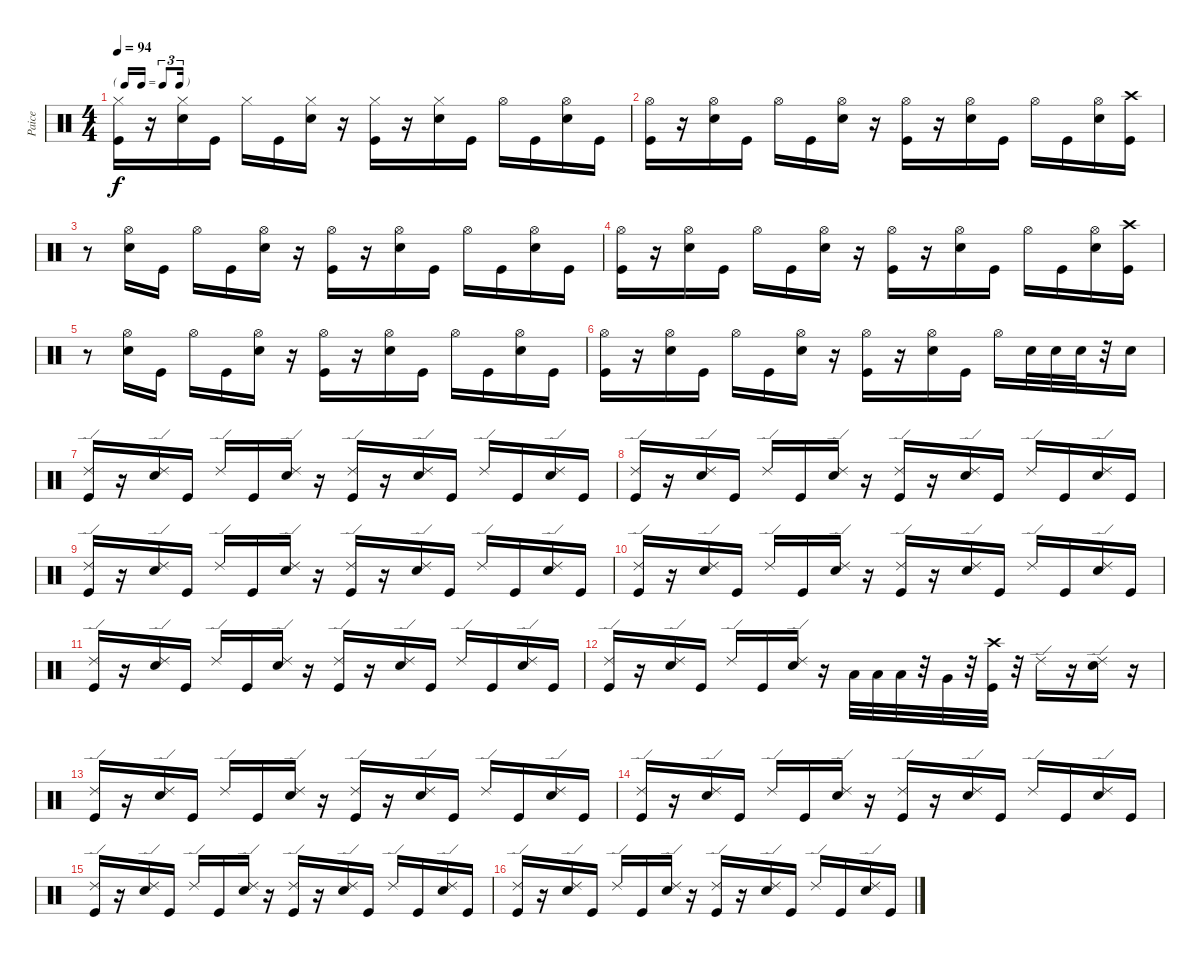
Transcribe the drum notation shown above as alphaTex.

\track ("Paice" "Paice") {instrument percussion}
\staff {score}
\articulation defaults
\ts (4 4)
\tf triplet16th
\tempo 94
\clef neutral
\ks c
("Hi-Hat (closed)" "Kick (hit)").16{dy f} r.16 ("Hi-Hat (closed)" "Snare (hit) 2").16 "Kick (hit)".16 "Hi-Hat (closed)".16 "Kick (hit)".16 ("Hi-Hat (closed)" "Snare (hit) 2").16 r.16 ("Hi-Hat (closed)" "Kick (hit)").16 r.16 ("Hi-Hat (closed)" "Snare (hit) 2").16 "Kick (hit)".16 "Hi-Hat (open)".16 "Kick (hit)".16 ("Hi-Hat (open)" "Snare (hit) 2").16 "Kick (hit)".16 |
("Hi-Hat (open)" "Kick (hit)").16 r.16 ("Hi-Hat (open)" "Snare (hit) 2").16 "Kick (hit)".16 "Hi-Hat (open)".16 "Kick (hit)".16 ("Hi-Hat (open)" "Snare (hit) 2").16 r.16 ("Hi-Hat (open)" "Kick (hit)").16 r.16 ("Hi-Hat (open)" "Snare (hit) 2").16 "Kick (hit)".16 "Hi-Hat (open)".16 "Kick (hit)".16 ("Hi-Hat (open)" "Snare (hit) 2").16 ("Crash high (hit)" "Kick (hit)").16 |
r.8 ("Hi-Hat (open)" "Snare (hit) 2").16 "Kick (hit)".16 "Hi-Hat (open)".16 "Kick (hit)".16 ("Hi-Hat (open)" "Snare (hit) 2").16 r.16 ("Hi-Hat (open)" "Kick (hit)").16 r.16 ("Hi-Hat (open)" "Snare (hit) 2").16 "Kick (hit)".16 "Hi-Hat (open)".16 "Kick (hit)".16 ("Hi-Hat (open)" "Snare (hit) 2").16 "Kick (hit)".16 |
("Hi-Hat (open)" "Kick (hit)").16 r.16 ("Hi-Hat (open)" "Snare (hit) 2").16 "Kick (hit)".16 "Hi-Hat (open)".16 "Kick (hit)".16 ("Hi-Hat (open)" "Snare (hit) 2").16 r.16 ("Hi-Hat (open)" "Kick (hit)").16 r.16 ("Hi-Hat (open)" "Snare (hit) 2").16 "Kick (hit)".16 "Hi-Hat (open)".16 "Kick (hit)".16 ("Hi-Hat (open)" "Snare (hit) 2").16 ("Crash high (hit)" "Kick (hit)").16 |
r.8 ("Hi-Hat (open)" "Snare (hit) 2").16 "Kick (hit)".16 "Hi-Hat (open)".16 "Kick (hit)".16 ("Hi-Hat (open)" "Snare (hit) 2").16 r.16 ("Hi-Hat (open)" "Kick (hit)").16 r.16 ("Hi-Hat (open)" "Snare (hit) 2").16 "Kick (hit)".16 "Hi-Hat (open)".16 "Kick (hit)".16 ("Hi-Hat (open)" "Snare (hit) 2").16 "Kick (hit)".16 |
("Hi-Hat (open)" "Kick (hit)").16 r.16 ("Hi-Hat (open)" "Snare (hit) 2").16 "Kick (hit)".16 "Hi-Hat (open)".16 "Kick (hit)".16 ("Hi-Hat (open)" "Snare (hit) 2").16 r.16 ("Hi-Hat (open)" "Kick (hit)").16 r.16 ("Hi-Hat (open)" "Snare (hit) 2").16 "Kick (hit)".16 "Hi-Hat (open)".16 "Snare (hit) 2".32 "Snare (hit) 2".32 "Snare (hit) 2".32 r.32 "Snare (hit) 2".16 |
("Ride (edge) 2" "Kick (hit)").16 r.16 ("Ride (edge) 2" "Snare (hit) 2").16 "Kick (hit)".16 "Ride (edge) 2".16 "Kick (hit)".16 ("Ride (edge) 2" "Snare (hit) 2").16 r.16 ("Ride (edge) 2" "Kick (hit)").16 r.16 ("Ride (edge) 2" "Snare (hit) 2").16 "Kick (hit)".16 "Ride (edge) 2".16 "Kick (hit)".16 ("Ride (edge) 2" "Snare (hit) 2").16 "Kick (hit)".16 |
("Ride (edge) 2" "Kick (hit)").16 r.16 ("Ride (edge) 2" "Snare (hit) 2").16 "Kick (hit)".16 "Ride (edge) 2".16 "Kick (hit)".16 ("Ride (edge) 2" "Snare (hit) 2").16 r.16 ("Ride (edge) 2" "Kick (hit)").16 r.16 ("Ride (edge) 2" "Snare (hit) 2").16 "Kick (hit)".16 "Ride (edge) 2".16 "Kick (hit)".16 ("Ride (edge) 2" "Snare (hit) 2").16 "Kick (hit)".16 |
("Ride (edge) 2" "Kick (hit)").16 r.16 ("Ride (edge) 2" "Snare (hit) 2").16 "Kick (hit)".16 "Ride (edge) 2".16 "Kick (hit)".16 ("Ride (edge) 2" "Snare (hit) 2").16 r.16 ("Ride (edge) 2" "Kick (hit)").16 r.16 ("Ride (edge) 2" "Snare (hit) 2").16 "Kick (hit)".16 "Ride (edge) 2".16 "Kick (hit)".16 ("Ride (edge) 2" "Snare (hit) 2").16 "Kick (hit)".16 |
("Ride (edge) 2" "Kick (hit)").16 r.16 ("Ride (edge) 2" "Snare (hit) 2").16 "Kick (hit)".16 "Ride (edge) 2".16 "Kick (hit)".16 ("Ride (edge) 2" "Snare (hit) 2").16 r.16 ("Ride (edge) 2" "Kick (hit)").16 r.16 ("Ride (edge) 2" "Snare (hit) 2").16 "Kick (hit)".16 "Ride (edge) 2".16 "Kick (hit)".16 ("Ride (edge) 2" "Snare (hit) 2").16 "Kick (hit)".16 |
("Ride (edge) 2" "Kick (hit)").16 r.16 ("Ride (edge) 2" "Snare (hit) 2").16 "Kick (hit)".16 "Ride (edge) 2".16 "Kick (hit)".16 ("Ride (edge) 2" "Snare (hit) 2").16 r.16 ("Ride (edge) 2" "Kick (hit)").16 r.16 ("Ride (edge) 2" "Snare (hit) 2").16 "Kick (hit)".16 "Ride (edge) 2".16 "Kick (hit)".16 ("Ride (edge) 2" "Snare (hit) 2").16 "Kick (hit)".16 |
("Ride (edge) 2" "Kick (hit)").16 r.16 ("Ride (edge) 2" "Snare (hit) 2").16 "Kick (hit)".16 "Ride (edge) 2".16 "Kick (hit)".16 ("Ride (edge) 2" "Snare (hit) 2").16 r.16 "Low Tom (hit)".32 "Low Tom (hit)".32 "Low Tom (hit)".32 r.32 "Very Low Tom (hit)".32 r.32 ("Crash high (hit)" "Kick (hit)").32 r.32 "Ride (edge) 2".16 r.16 ("Ride (edge) 2" "Snare (hit) 2").16 r.16 |
("Ride (edge) 2" "Kick (hit)").16 r.16 ("Ride (edge) 2" "Snare (hit) 2").16 "Kick (hit)".16 "Ride (edge) 2".16 "Kick (hit)".16 ("Ride (edge) 2" "Snare (hit) 2").16 r.16 ("Ride (edge) 2" "Kick (hit)").16 r.16 ("Ride (edge) 2" "Snare (hit) 2").16 "Kick (hit)".16 "Ride (edge) 2".16 "Kick (hit)".16 ("Ride (edge) 2" "Snare (hit) 2").16 "Kick (hit)".16 |
("Ride (edge) 2" "Kick (hit)").16 r.16 ("Ride (edge) 2" "Snare (hit) 2").16 "Kick (hit)".16 "Ride (edge) 2".16 "Kick (hit)".16 ("Ride (edge) 2" "Snare (hit) 2").16 r.16 ("Ride (edge) 2" "Kick (hit)").16 r.16 ("Ride (edge) 2" "Snare (hit) 2").16 "Kick (hit)".16 "Ride (edge) 2".16 "Kick (hit)".16 ("Ride (edge) 2" "Snare (hit) 2").16 "Kick (hit)".16 |
("Ride (edge) 2" "Kick (hit)").16 r.16 ("Ride (edge) 2" "Snare (hit) 2").16 "Kick (hit)".16 "Ride (edge) 2".16 "Kick (hit)".16 ("Ride (edge) 2" "Snare (hit) 2").16 r.16 ("Ride (edge) 2" "Kick (hit)").16 r.16 ("Ride (edge) 2" "Snare (hit) 2").16 "Kick (hit)".16 "Ride (edge) 2".16 "Kick (hit)".16 ("Ride (edge) 2" "Snare (hit) 2").16 "Kick (hit)".16 |
("Ride (edge) 2" "Kick (hit)").16 r.16 ("Ride (edge) 2" "Snare (hit) 2").16 "Kick (hit)".16 "Ride (edge) 2".16 "Kick (hit)".16 ("Ride (edge) 2" "Snare (hit) 2").16 r.16 ("Ride (edge) 2" "Kick (hit)").16 r.16 ("Ride (edge) 2" "Snare (hit) 2").16 "Kick (hit)".16 "Ride (edge) 2".16 "Kick (hit)".16 ("Ride (edge) 2" "Snare (hit) 2").16 "Kick (hit)".16
